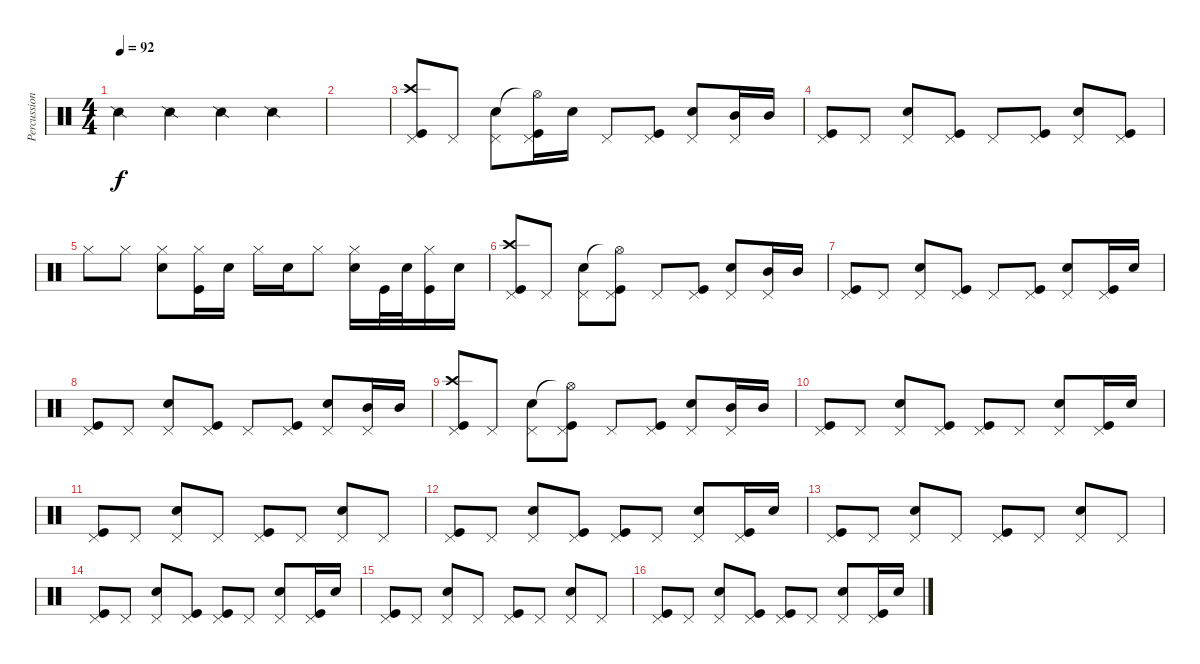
\track ("Percussion" "Percussion") {instrument percussion}
\staff {score}
\articulation defaults
\ts (4 4)
\tempo 92
\clef neutral
\ks c "Snare (side stick) 2".4{dy f} "Snare (side stick) 2".4 "Snare (side stick) 2".4 "Snare (side stick) 2".4
|
|
("Pedal Hi-Hat (hit)" "Crash high (hit)" "Kick (hit)").8 "Pedal Hi-Hat (hit)".8 ("Pedal Hi-Hat (hit)" "Snare (hit) 2").8 ("Pedal Hi-Hat (hit)" "Hi-Hat (open)"{t} "Kick (hit)").16 "Snare (hit) 2".16 "Pedal Hi-Hat (hit)".8 ("Pedal Hi-Hat (hit)" "Kick (hit)").8 ("Pedal Hi-Hat (hit)" "Snare (hit) 2").8 ("Pedal Hi-Hat (hit)" "Mid Tom (hit)").16 "Mid Tom (hit)".16 |
("Pedal Hi-Hat (hit)" "Kick (hit)").8 "Pedal Hi-Hat (hit)".8 ("Pedal Hi-Hat (hit)" "Snare (hit) 2").8 ("Pedal Hi-Hat (hit)" "Kick (hit)").8 "Pedal Hi-Hat (hit)".8 ("Pedal Hi-Hat (hit)" "Kick (hit)").8 ("Pedal Hi-Hat (hit)" "Snare (hit) 2").8 ("Pedal Hi-Hat (hit)" "Kick (hit)").8 |
"Hi-Hat (closed)".8 "Hi-Hat (closed)".8 ("Hi-Hat (closed)" "Snare (hit) 2").8 ("Hi-Hat (closed)" "Kick (hit)").16 "Snare (hit) 2".16 "Hi-Hat (closed)".16 "Snare (hit) 2".16 "Hi-Hat (closed)".8 ("Hi-Hat (closed)" "Snare (hit) 2").16 "Kick (hit)".32 "Snare (hit) 2".32 ("Hi-Hat (closed)" "Kick (hit)").16 "Snare (hit) 2".16 |
("Pedal Hi-Hat (hit)" "Crash high (hit)" "Kick (hit)").8 "Pedal Hi-Hat (hit)".8 ("Pedal Hi-Hat (hit)" "Snare (hit) 2").8 ("Pedal Hi-Hat (hit)" "Hi-Hat (open)"{t} "Kick (hit)").8 "Pedal Hi-Hat (hit)".8 ("Pedal Hi-Hat (hit)" "Kick (hit)").8 ("Pedal Hi-Hat (hit)" "Snare (hit) 2").8 ("Pedal Hi-Hat (hit)" "Mid Tom (hit)").16 "Mid Tom (hit)".16 |
("Pedal Hi-Hat (hit)" "Kick (hit)").8 "Pedal Hi-Hat (hit)".8 ("Pedal Hi-Hat (hit)" "Snare (hit) 2").8 ("Pedal Hi-Hat (hit)" "Kick (hit)").8 "Pedal Hi-Hat (hit)".8 ("Pedal Hi-Hat (hit)" "Kick (hit)").8 ("Pedal Hi-Hat (hit)" "Snare (hit) 2").8 ("Pedal Hi-Hat (hit)" "Kick (hit)").16 "Snare (hit) 2".16 |
("Pedal Hi-Hat (hit)" "Kick (hit)").8 "Pedal Hi-Hat (hit)".8 ("Pedal Hi-Hat (hit)" "Snare (hit) 2").8 ("Pedal Hi-Hat (hit)" "Kick (hit)").8 "Pedal Hi-Hat (hit)".8 ("Pedal Hi-Hat (hit)" "Kick (hit)").8 ("Pedal Hi-Hat (hit)" "Snare (hit) 2").8 ("Pedal Hi-Hat (hit)" "Mid Tom (hit)").16 "Mid Tom (hit)".16 |
("Pedal Hi-Hat (hit)" "Crash high (hit)" "Kick (hit)").8 "Pedal Hi-Hat (hit)".8 ("Pedal Hi-Hat (hit)" "Snare (hit) 2").8 ("Pedal Hi-Hat (hit)" "Hi-Hat (open)"{t} "Kick (hit)").8 "Pedal Hi-Hat (hit)".8 ("Pedal Hi-Hat (hit)" "Kick (hit)").8 ("Pedal Hi-Hat (hit)" "Snare (hit) 2").8 ("Pedal Hi-Hat (hit)" "Mid Tom (hit)").16 "Mid Tom (hit)".16 |
("Pedal Hi-Hat (hit)" "Kick (hit)").8 "Pedal Hi-Hat (hit)".8 ("Pedal Hi-Hat (hit)" "Snare (hit) 2").8 ("Pedal Hi-Hat (hit)" "Kick (hit)").8 ("Pedal Hi-Hat (hit)" "Kick (hit)").8 "Pedal Hi-Hat (hit)".8 ("Pedal Hi-Hat (hit)" "Snare (hit) 2").8 ("Pedal Hi-Hat (hit)" "Kick (hit)").16 "Snare (hit) 2".16 |
("Pedal Hi-Hat (hit)" "Kick (hit)").8 "Pedal Hi-Hat (hit)".8 ("Pedal Hi-Hat (hit)" "Snare (hit) 2").8 "Pedal Hi-Hat (hit)".8 ("Pedal Hi-Hat (hit)" "Kick (hit)").8 "Pedal Hi-Hat (hit)".8 ("Pedal Hi-Hat (hit)" "Snare (hit) 2").8 "Pedal Hi-Hat (hit)".8 |
("Pedal Hi-Hat (hit)" "Kick (hit)").8 "Pedal Hi-Hat (hit)".8 ("Pedal Hi-Hat (hit)" "Snare (hit) 2").8 ("Pedal Hi-Hat (hit)" "Kick (hit)").8 ("Pedal Hi-Hat (hit)" "Kick (hit)").8 "Pedal Hi-Hat (hit)".8 ("Pedal Hi-Hat (hit)" "Snare (hit) 2").8 ("Pedal Hi-Hat (hit)" "Kick (hit)").16 "Snare (hit) 2".16 |
("Pedal Hi-Hat (hit)" "Kick (hit)").8 "Pedal Hi-Hat (hit)".8 ("Pedal Hi-Hat (hit)" "Snare (hit) 2").8 "Pedal Hi-Hat (hit)".8 ("Pedal Hi-Hat (hit)" "Kick (hit)").8 "Pedal Hi-Hat (hit)".8 ("Pedal Hi-Hat (hit)" "Snare (hit) 2").8 "Pedal Hi-Hat (hit)".8 |
("Pedal Hi-Hat (hit)" "Kick (hit)").8 "Pedal Hi-Hat (hit)".8 ("Pedal Hi-Hat (hit)" "Snare (hit) 2").8 ("Pedal Hi-Hat (hit)" "Kick (hit)").8 ("Pedal Hi-Hat (hit)" "Kick (hit)").8 "Pedal Hi-Hat (hit)".8 ("Pedal Hi-Hat (hit)" "Snare (hit) 2").8 ("Pedal Hi-Hat (hit)" "Kick (hit)").16 "Snare (hit) 2".16 |
("Pedal Hi-Hat (hit)" "Kick (hit)").8 "Pedal Hi-Hat (hit)".8 ("Pedal Hi-Hat (hit)" "Snare (hit) 2").8 "Pedal Hi-Hat (hit)".8 ("Pedal Hi-Hat (hit)" "Kick (hit)").8 "Pedal Hi-Hat (hit)".8 ("Pedal Hi-Hat (hit)" "Snare (hit) 2").8 "Pedal Hi-Hat (hit)".8 |
("Pedal Hi-Hat (hit)" "Kick (hit)").8 "Pedal Hi-Hat (hit)".8 ("Pedal Hi-Hat (hit)" "Snare (hit) 2").8 ("Pedal Hi-Hat (hit)" "Kick (hit)").8 ("Pedal Hi-Hat (hit)" "Kick (hit)").8 "Pedal Hi-Hat (hit)".8 ("Pedal Hi-Hat (hit)" "Snare (hit) 2").8 ("Pedal Hi-Hat (hit)" "Kick (hit)").16 "Snare (hit) 2".16
